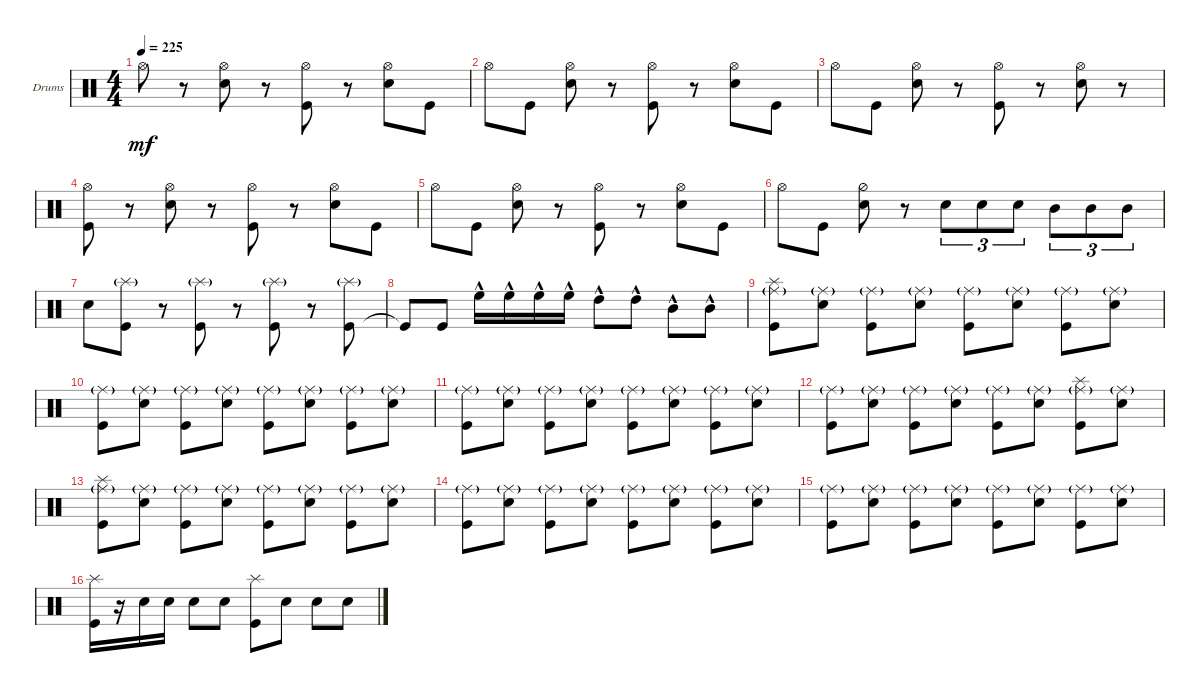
\bracketExtendMode groupsimilarinstruments
\firstSystemTrackNameOrientation horizontal
\otherSystemsTrackNameOrientation horizontal
\track ("Drumkit" "Drums") {instrument percussion}
\staff {score}
\articulation defaults
\ts (4 4)
\tempo 225
\clef neutral
\ks c "Hi-Hat (open)".8{dy mf}
r.8 ("Snare (hit) 2" "Hi-Hat (open)").8 r.8 ("Kick (hit)" "Hi-Hat (open)").8 r.8 ("Snare (hit) 2" "Hi-Hat (open)").8 "Kick (hit)".8 |
"Hi-Hat (open)".8 "Kick (hit)".8 ("Snare (hit) 2" "Hi-Hat (open)").8 r.8 ("Kick (hit)" "Hi-Hat (open)").8 r.8 ("Snare (hit) 2" "Hi-Hat (open)").8 "Kick (hit)".8 |
"Hi-Hat (open)".8 "Kick (hit)".8 ("Snare (hit) 2" "Hi-Hat (open)").8 r.8 ("Kick (hit)" "Hi-Hat (open)").8 r.8 ("Snare (hit) 2" "Hi-Hat (open)").8 r.8 |
("Kick (hit)" "Hi-Hat (open)").8 r.8 ("Snare (hit) 2" "Hi-Hat (open)").8 r.8 ("Kick (hit)" "Hi-Hat (open)").8 r.8 ("Snare (hit) 2" "Hi-Hat (open)").8 "Kick (hit)".8 |
"Hi-Hat (open)".8 "Kick (hit)".8 ("Snare (hit) 2" "Hi-Hat (open)").8 r.8 ("Hi-Hat (open)" "Kick (hit)").8 r.8 ("Snare (hit) 2" "Hi-Hat (open)").8 "Kick (hit)".8 |
"Hi-Hat (open)".8 "Kick (hit)".8 ("Snare (hit) 2" "Hi-Hat (half)").8 r.8 "Snare (hit) 2".8{tu (3 2)} "Snare (hit) 2".8{tu (3 2)} "Snare (hit) 2".8{tu (3 2)} "Mid Tom (hit)".8{tu (3 2)} "Mid Tom (hit)".8{tu (3 2)} "Mid Tom (hit)".8{tu (3 2)} |
"Snare (hit) 2".8 ("Kick (hit)" "Splash (hit)"{g}).8 r.8 ("Kick (hit)" "Splash (hit)"{g}).8 r.8 ("Kick (hit)" "Splash (hit)"{g}).8 r.8 ("Kick (hit)" "Splash (hit)"{g}).8 |
"Kick (hit)"{t}.8 "Kick (hit)".8 "High Floor Tom (hit)"{hac}.16 "High Floor Tom (hit)"{hac}.16 "High Floor Tom (hit)"{hac}.16 "High Floor Tom (hit)"{hac}.16 "High Tom (hit)"{hac}.8 "High Tom (hit)"{hac}.8 "Mid Tom (hit)"{hac}.8 "Mid Tom (hit)"{hac}.8 |
("Kick (hit)" "Ride (middle)"{g} "Splash (hit)").8 ("Snare (hit) 2" "Ride (middle)"{g}).8 ("Kick (hit)" "Ride (middle)"{g}).8 ("Snare (hit) 2" "Ride (middle)"{g}).8 ("Kick (hit)" "Ride (middle)"{g}).8 ("Snare (hit) 2" "Ride (middle)"{g}).8 ("Kick (hit)" "Ride (middle)"{g}).8 ("Snare (hit) 2" "Ride (middle)"{g}).8 |
("Kick (hit)" "Ride (middle)"{g}).8 ("Snare (hit) 2" "Ride (middle)"{g}).8 ("Kick (hit)" "Ride (middle)"{g}).8 ("Snare (hit) 2" "Ride (middle)"{g}).8 ("Kick (hit)" "Ride (middle)"{g}).8 ("Snare (hit) 2" "Ride (middle)"{g}).8 ("Kick (hit)" "Ride (middle)"{g}).8 ("Snare (hit) 2" "Ride (middle)"{g}).8 |
("Kick (hit)" "Ride (middle)"{g}).8 ("Snare (hit) 2" "Ride (middle)"{g}).8 ("Kick (hit)" "Ride (middle)"{g}).8 ("Snare (hit) 2" "Ride (middle)"{g}).8 ("Kick (hit)" "Ride (middle)"{g}).8 ("Snare (hit) 2" "Ride (middle)"{g}).8 ("Kick (hit)" "Ride (middle)"{g}).8 ("Snare (hit) 2" "Ride (middle)"{g}).8 |
("Kick (hit)" "Ride (middle)"{g}).8 ("Snare (hit) 2" "Ride (middle)"{g}).8 ("Kick (hit)" "Ride (middle)"{g}).8 ("Snare (hit) 2" "Ride (middle)"{g}).8 ("Kick (hit)" "Ride (middle)"{g}).8 ("Snare (hit) 2" "Ride (middle)"{g}).8 ("Kick (hit)" "Ride (middle)"{g} "Splash (hit)").8 ("Snare (hit) 2" "Ride (middle)"{g}).8 |
("Kick (hit)" "Ride (middle)"{g} "Splash (hit)").8 ("Snare (hit) 2" "Ride (middle)"{g}).8 ("Kick (hit)" "Ride (middle)"{g}).8 ("Snare (hit) 2" "Ride (middle)"{g}).8 ("Kick (hit)" "Ride (middle)"{g}).8 ("Snare (hit) 2" "Ride (middle)"{g}).8 ("Kick (hit)" "Ride (middle)"{g}).8 ("Snare (hit) 2" "Ride (middle)"{g}).8 |
("Kick (hit)" "Ride (middle)"{g}).8 ("Snare (hit) 2" "Ride (middle)"{g}).8 ("Kick (hit)" "Ride (middle)"{g}).8 ("Snare (hit) 2" "Ride (middle)"{g}).8 ("Kick (hit)" "Ride (middle)"{g}).8 ("Snare (hit) 2" "Ride (middle)"{g}).8 ("Kick (hit)" "Ride (middle)"{g}).8 ("Snare (hit) 2" "Ride (middle)"{g}).8 |
("Kick (hit)" "Ride (middle)"{g}).8 ("Snare (hit) 2" "Ride (middle)"{g}).8 ("Kick (hit)" "Ride (middle)"{g}).8 ("Snare (hit) 2" "Ride (middle)"{g}).8 ("Kick (hit)" "Ride (middle)"{g}).8 ("Snare (hit) 2" "Ride (middle)"{g}).8 ("Kick (hit)" "Ride (middle)"{g}).8 ("Snare (hit) 2" "Ride (middle)"{g}).8 |
("Kick (hit)" "Splash (hit)").16 r.16 "Snare (hit) 2".16 "Snare (hit) 2".16 "Snare (hit) 2".8 "Snare (hit) 2".8 ("Kick (hit)" "Splash (hit)").8 "Snare (hit) 2".8 "Snare (hit) 2".8 "Snare (hit) 2".8
